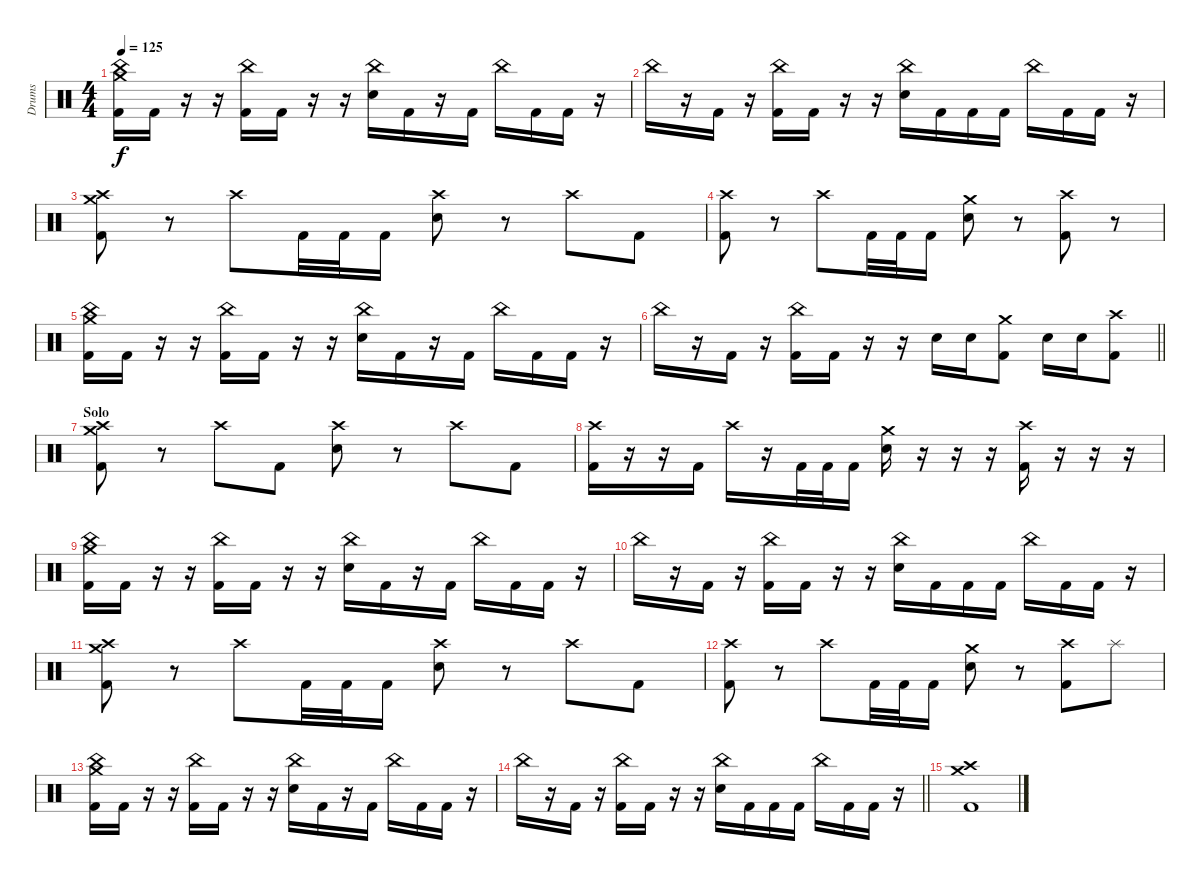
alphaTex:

\track ("Drums" "Drums") {instrument percussion}
\staff {score}
\articulation defaults
\ts (4 4)
\tempo 125
\clef neutral
\ks c
("China (hit)" "Crash medium (hit)" "Kick (hit) 2").16{dy f} "Kick (hit) 2".16 r.16 r.16 ("China (hit)" "Kick (hit) 2").16 "Kick (hit) 2".16 r.16 r.16 ("China (hit)" "Electric Snare (hit)").16 "Kick (hit) 2".16 r.16 "Kick (hit) 2".16 "China (hit)".16 "Kick (hit) 2".16 "Kick (hit) 2".16 r.16 |
"China (hit)".16 r.16 "Kick (hit) 2".16 r.16 ("China (hit)" "Kick (hit) 2").16 "Kick (hit) 2".16 r.16 r.16 ("China (hit)" "Electric Snare (hit)").16 "Kick (hit) 2".16 "Kick (hit) 2".16 "Kick (hit) 2".16 "China (hit)".16 "Kick (hit) 2".16 "Kick (hit) 2".16 r.16 |
("Crash medium (hit)" "Crash high (hit)" "Kick (hit) 2").8 r.8 "Crash high (hit)".8 "Kick (hit) 2".32 "Kick (hit) 2".32 "Kick (hit) 2".16 ("Crash high (hit)" "Electric Snare (hit)").8 r.8 "Crash high (hit)".8 "Kick (hit) 2".8 |
("Crash high (hit)" "Kick (hit) 2").8 r.8 "Crash high (hit)".8 "Kick (hit) 2".32 "Kick (hit) 2".32 "Kick (hit) 2".16 ("Crash medium (hit)" "Electric Snare (hit)").8 r.8 ("Crash high (hit)" "Kick (hit) 2").8 r.8 |
("China (hit)" "Crash medium (hit)" "Kick (hit) 2").16 "Kick (hit) 2".16 r.16 r.16 ("China (hit)" "Kick (hit) 2").16 "Kick (hit) 2".16 r.16 r.16 ("China (hit)" "Electric Snare (hit)").16 "Kick (hit) 2".16 r.16 "Kick (hit) 2".16 "China (hit)".16 "Kick (hit) 2".16 "Kick (hit) 2".16 r.16 |
\barLineRight lightlight "China (hit)".16
r.16 "Kick (hit) 2".16 r.16 ("China (hit)" "Kick (hit) 2").16 "Kick (hit) 2".16 r.16 r.16 "Electric Snare (hit)".16 "Electric Snare (hit)".16 ("Crash medium (hit)" "Kick (hit) 2").8 "Electric Snare (hit)".16 "Electric Snare (hit)".16 ("Crash high (hit)" "Kick (hit) 2").8 |
\section ("" "Solo")
("Crash medium (hit)" "Crash high (hit)" "Kick (hit) 2").8 r.8 "Crash high (hit)".8 "Kick (hit) 2".8 ("Crash high (hit)" "Electric Snare (hit)").8 r.8 "Crash high (hit)".8 "Kick (hit) 2".8 |
("Crash high (hit)" "Kick (hit) 2").16 r.16 r.16 "Kick (hit) 2".16 "Crash high (hit)".16 r.16 "Kick (hit) 2".32 "Kick (hit) 2".32 "Kick (hit) 2".16 ("Crash medium (hit)" "Electric Snare (hit)").16 r.16 r.16 r.16 ("Crash high (hit)" "Kick (hit) 2").16 r.16 r.16 r.16 |
("China (hit)" "Crash medium (hit)" "Kick (hit) 2").16 "Kick (hit) 2".16 r.16 r.16 ("China (hit)" "Kick (hit) 2").16 "Kick (hit) 2".16 r.16 r.16 ("China (hit)" "Electric Snare (hit)").16 "Kick (hit) 2".16 r.16 "Kick (hit) 2".16 "China (hit)".16 "Kick (hit) 2".16 "Kick (hit) 2".16 r.16 |
"China (hit)".16 r.16 "Kick (hit) 2".16 r.16 ("China (hit)" "Kick (hit) 2").16 "Kick (hit) 2".16 r.16 r.16 ("China (hit)" "Electric Snare (hit)").16 "Kick (hit) 2".16 "Kick (hit) 2".16 "Kick (hit) 2".16 "China (hit)".16 "Kick (hit) 2".16 "Kick (hit) 2".16 r.16 |
("Crash medium (hit)" "Crash high (hit)" "Kick (hit) 2").8 r.8 "Crash high (hit)".8 "Kick (hit) 2".32 "Kick (hit) 2".32 "Kick (hit) 2".16 ("Crash high (hit)" "Electric Snare (hit)").8 r.8 "Crash high (hit)".8 "Kick (hit) 2".8 |
("Crash high (hit)" "Kick (hit) 2").8 r.8 "Crash high (hit)".8 "Kick (hit) 2".32 "Kick (hit) 2".32 "Kick (hit) 2".16 ("Crash medium (hit)" "Electric Snare (hit)").8 r.8 ("Crash high (hit)" "Kick (hit) 2").8 "Splash (hit)".8 |
("China (hit)" "Crash medium (hit)" "Kick (hit) 2").16 "Kick (hit) 2".16 r.16 r.16 ("China (hit)" "Kick (hit) 2").16 "Kick (hit) 2".16 r.16 r.16 ("China (hit)" "Electric Snare (hit)").16 "Kick (hit) 2".16 r.16 "Kick (hit) 2".16 "China (hit)".16 "Kick (hit) 2".16 "Kick (hit) 2".16 r.16 |
\barLineRight lightlight "China (hit)".16
r.16 "Kick (hit) 2".16 r.16 ("China (hit)" "Kick (hit) 2").16 "Kick (hit) 2".16 r.16 r.16 ("China (hit)" "Electric Snare (hit)").16 "Kick (hit) 2".16 "Kick (hit) 2".16 "Kick (hit) 2".16 "China (hit)".16 "Kick (hit) 2".16 "Kick (hit) 2".16 r.16 |
\section ("" "")
("Crash medium (hit)" "Crash high (hit)" "Kick (hit) 2").1
